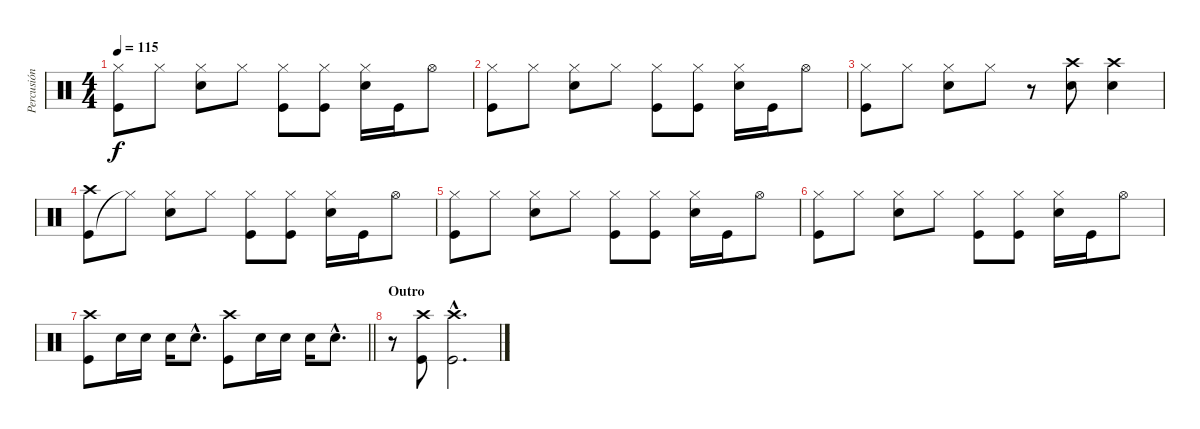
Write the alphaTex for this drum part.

\track ("Percusión" "Percusión") {instrument percussion}
\staff {score}
\articulation defaults
\ts (4 4)
\tempo 115
\clef neutral
\ks c
("Kick (hit)" "Hi-Hat (closed)").8{dy f} "Hi-Hat (closed)".8 ("Snare (hit) 2" "Hi-Hat (closed)").8 "Hi-Hat (closed)".8 ("Kick (hit)" "Hi-Hat (closed)").8 ("Kick (hit)" "Hi-Hat (closed)").8 ("Snare (hit) 2" "Hi-Hat (closed)").16 "Kick (hit)".16 "Hi-Hat (open)".8 |
("Kick (hit)" "Hi-Hat (closed)").8 "Hi-Hat (closed)".8 ("Snare (hit) 2" "Hi-Hat (closed)").8 "Hi-Hat (closed)".8 ("Kick (hit)" "Hi-Hat (closed)").8 ("Kick (hit)" "Hi-Hat (closed)").8 ("Snare (hit) 2" "Hi-Hat (closed)").16 "Kick (hit)".16 "Hi-Hat (open)".8 |
("Kick (hit)" "Hi-Hat (closed)").8 "Hi-Hat (closed)".8 ("Snare (hit) 2" "Hi-Hat (closed)").8 "Hi-Hat (closed)".8 r.8 ("Snare (hit) 2" "Crash high (hit)").8 ("Snare (hit) 2" "Crash high (hit)").4 |
("Kick (hit)" "Crash high (hit)").8 "Hi-Hat (closed)"{t}.8 ("Snare (hit) 2" "Hi-Hat (closed)").8 "Hi-Hat (closed)".8 ("Kick (hit)" "Hi-Hat (closed)").8 ("Kick (hit)" "Hi-Hat (closed)").8 ("Snare (hit) 2" "Hi-Hat (closed)").16 "Kick (hit)".16 "Hi-Hat (open)".8 |
("Kick (hit)" "Hi-Hat (closed)").8 "Hi-Hat (closed)".8 ("Snare (hit) 2" "Hi-Hat (closed)").8 "Hi-Hat (closed)".8 ("Kick (hit)" "Hi-Hat (closed)").8 ("Kick (hit)" "Hi-Hat (closed)").8 ("Snare (hit) 2" "Hi-Hat (closed)").16 "Kick (hit)".16 "Hi-Hat (open)".8 |
("Kick (hit)" "Hi-Hat (closed)").8 "Hi-Hat (closed)".8 ("Snare (hit) 2" "Hi-Hat (closed)").8 "Hi-Hat (closed)".8 ("Kick (hit)" "Hi-Hat (closed)").8 ("Kick (hit)" "Hi-Hat (closed)").8 ("Snare (hit) 2" "Hi-Hat (closed)").16 "Kick (hit)".16 "Hi-Hat (open)".8 |
\barLineRight lightlight
("Kick (hit)" "Crash high (hit)").8 "Snare (hit) 2".16 "Snare (hit) 2".16 "Snare (hit) 2".16 "Snare (hit) 2"{hac}.8{d} ("Crash high (hit)" "Kick (hit)").8 "Snare (hit) 2".16 "Snare (hit) 2".16 "Snare (hit) 2".16 "Snare (hit) 2"{hac}.8{d} |
\section ("" "Outro")
r.8 ("Kick (hit)" "Crash high (hit)").8 ("Kick (hit)"{hac} "Crash high (hit)"{hac}).2{d}
